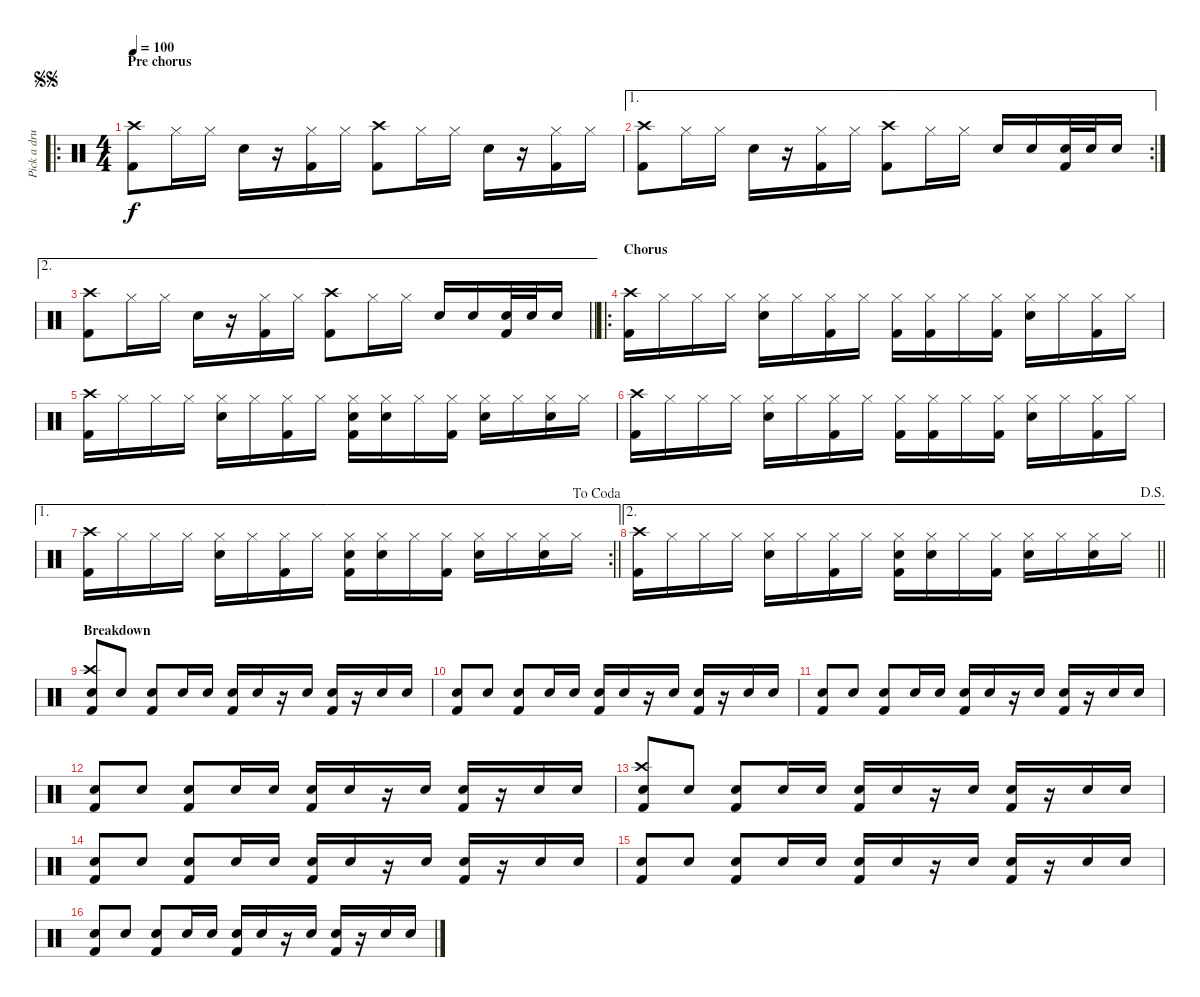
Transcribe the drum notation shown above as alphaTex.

\track ("Pick a drummer any drummer" "Pick a dru") {instrument percussion}
\staff {score}
\articulation defaults
\ro
\ts (4 4)
\section ("" "Pre chorus")
\jump segnosegno
\tempo 100
\clef neutral
\ks c
("Kick (hit) 2" "Crash high (hit)").8{dy f} "Hi-Hat (closed)".16 "Hi-Hat (closed)".16 "Snare (hit) 2".16 r.16 ("Hi-Hat (closed)" "Kick (hit) 2").16 "Hi-Hat (closed)".16 ("Kick (hit) 2" "Crash high (hit)").8 "Hi-Hat (closed)".16 "Hi-Hat (closed)".16 "Snare (hit) 2".16 r.16 ("Hi-Hat (closed)" "Kick (hit) 2").16 "Hi-Hat (closed)".16 |
\ae 1
\rc 2
("Kick (hit) 2" "Crash high (hit)").8 "Hi-Hat (closed)".16 "Hi-Hat (closed)".16 "Snare (hit) 2".16 r.16 ("Hi-Hat (closed)" "Kick (hit) 2").16 "Hi-Hat (closed)".16 ("Kick (hit) 2" "Crash high (hit)").8 "Hi-Hat (closed)".16 "Hi-Hat (closed)".16 "Snare (hit) 2".16 "Snare (hit) 2".16 ("Snare (hit) 2" "Kick (hit) 2").32 "Snare (hit) 2".32 "Snare (hit) 2".16 |
\ae 2
\barLineRight lightlight
("Kick (hit) 2" "Crash high (hit)").8 "Hi-Hat (closed)".16 "Hi-Hat (closed)".16 "Snare (hit) 2".16 r.16 ("Hi-Hat (closed)" "Kick (hit) 2").16 "Hi-Hat (closed)".16 ("Kick (hit) 2" "Crash high (hit)").8 "Hi-Hat (closed)".16 "Hi-Hat (closed)".16 "Snare (hit) 2".16 "Snare (hit) 2".16 ("Snare (hit) 2" "Kick (hit) 2").32 "Snare (hit) 2".32 "Snare (hit) 2".16 |
\ro
\section ("" "Chorus")
("Kick (hit) 2" "Crash high (hit)").16 "Hi-Hat (closed)".16 "Hi-Hat (closed)".16 "Hi-Hat (closed)".16 ("Hi-Hat (closed)" "Snare (hit) 2").16 "Hi-Hat (closed)".16 ("Hi-Hat (closed)" "Kick (hit) 2").16 "Hi-Hat (closed)".16 ("Hi-Hat (closed)" "Kick (hit) 2").16 ("Hi-Hat (closed)" "Kick (hit) 2").16 "Hi-Hat (closed)".16 ("Hi-Hat (closed)" "Kick (hit) 2").16 ("Hi-Hat (closed)" "Snare (hit) 2").16 "Hi-Hat (closed)".16 ("Hi-Hat (closed)" "Kick (hit) 2").16 "Hi-Hat (closed)".16 |
("Kick (hit) 2" "Crash high (hit)").16 "Hi-Hat (closed)".16 "Hi-Hat (closed)".16 "Hi-Hat (closed)".16 ("Hi-Hat (closed)" "Snare (hit) 2").16 "Hi-Hat (closed)".16 ("Hi-Hat (closed)" "Kick (hit) 2").16 "Hi-Hat (closed)".16 ("Hi-Hat (closed)" "Snare (hit) 2" "Kick (hit) 2").16 ("Hi-Hat (closed)" "Snare (hit) 2").16 "Hi-Hat (closed)".16 ("Hi-Hat (closed)" "Kick (hit) 2").16 ("Hi-Hat (closed)" "Snare (hit) 2").16 "Hi-Hat (closed)".16 ("Hi-Hat (closed)" "Snare (hit) 2").16 "Hi-Hat (closed)".16 |
("Kick (hit) 2" "Crash high (hit)").16 "Hi-Hat (closed)".16 "Hi-Hat (closed)".16 "Hi-Hat (closed)".16 ("Hi-Hat (closed)" "Snare (hit) 2").16 "Hi-Hat (closed)".16 ("Hi-Hat (closed)" "Kick (hit) 2").16 "Hi-Hat (closed)".16 ("Hi-Hat (closed)" "Kick (hit) 2").16 ("Hi-Hat (closed)" "Kick (hit) 2").16 "Hi-Hat (closed)".16 ("Hi-Hat (closed)" "Kick (hit) 2").16 ("Hi-Hat (closed)" "Snare (hit) 2").16 "Hi-Hat (closed)".16 ("Hi-Hat (closed)" "Kick (hit) 2").16 "Hi-Hat (closed)".16 |
\ae 1
\rc 2
\jump dacoda
\barLineRight lightlight
("Kick (hit) 2" "Crash high (hit)").16 "Hi-Hat (closed)".16 "Hi-Hat (closed)".16 "Hi-Hat (closed)".16 ("Hi-Hat (closed)" "Snare (hit) 2").16 "Hi-Hat (closed)".16 ("Hi-Hat (closed)" "Kick (hit) 2").16 "Hi-Hat (closed)".16 ("Hi-Hat (closed)" "Snare (hit) 2" "Kick (hit) 2").16 ("Hi-Hat (closed)" "Snare (hit) 2").16 "Hi-Hat (closed)".16 ("Hi-Hat (closed)" "Kick (hit) 2").16 ("Hi-Hat (closed)" "Snare (hit) 2").16 "Hi-Hat (closed)".16 ("Hi-Hat (closed)" "Snare (hit) 2").16 "Hi-Hat (closed)".16 |
\ae 2
\jump dalsegno
\barLineRight lightlight
("Kick (hit) 2" "Crash high (hit)").16 "Hi-Hat (closed)".16 "Hi-Hat (closed)".16 "Hi-Hat (closed)".16 ("Hi-Hat (closed)" "Snare (hit) 2").16 "Hi-Hat (closed)".16 ("Hi-Hat (closed)" "Kick (hit) 2").16 "Hi-Hat (closed)".16 ("Hi-Hat (closed)" "Snare (hit) 2" "Kick (hit) 2").16 ("Hi-Hat (closed)" "Snare (hit) 2").16 "Hi-Hat (closed)".16 ("Hi-Hat (closed)" "Kick (hit) 2").16 ("Hi-Hat (closed)" "Snare (hit) 2").16 "Hi-Hat (closed)".16 ("Hi-Hat (closed)" "Snare (hit) 2").16 "Hi-Hat (closed)".16 |
\section ("" "Breakdown")
("Snare (hit) 2" "Kick (hit) 2" "Crash high (hit)").8 "Snare (hit) 2".8 ("Snare (hit) 2" "Kick (hit) 2").8 "Snare (hit) 2".16 "Snare (hit) 2".16 ("Snare (hit) 2" "Kick (hit) 2").16 "Snare (hit) 2".16 r.16 "Snare (hit) 2".16 ("Snare (hit) 2" "Kick (hit) 2").16 r.16 "Snare (hit) 2".16 "Snare (hit) 2".16 |
("Snare (hit) 2" "Kick (hit) 2").8 "Snare (hit) 2".8 ("Snare (hit) 2" "Kick (hit) 2").8 "Snare (hit) 2".16 "Snare (hit) 2".16 ("Snare (hit) 2" "Kick (hit) 2").16 "Snare (hit) 2".16 r.16 "Snare (hit) 2".16 ("Snare (hit) 2" "Kick (hit) 2").16 r.16 "Snare (hit) 2".16 "Snare (hit) 2".16 |
("Snare (hit) 2" "Kick (hit) 2").8 "Snare (hit) 2".8 ("Snare (hit) 2" "Kick (hit) 2").8 "Snare (hit) 2".16 "Snare (hit) 2".16 ("Snare (hit) 2" "Kick (hit) 2").16 "Snare (hit) 2".16 r.16 "Snare (hit) 2".16 ("Snare (hit) 2" "Kick (hit) 2").16 r.16 "Snare (hit) 2".16 "Snare (hit) 2".16 |
("Snare (hit) 2" "Kick (hit) 2").8 "Snare (hit) 2".8 ("Snare (hit) 2" "Kick (hit) 2").8 "Snare (hit) 2".16 "Snare (hit) 2".16 ("Snare (hit) 2" "Kick (hit) 2").16 "Snare (hit) 2".16 r.16 "Snare (hit) 2".16 ("Snare (hit) 2" "Kick (hit) 2").16 r.16 "Snare (hit) 2".16 "Snare (hit) 2".16 |
("Snare (hit) 2" "Kick (hit) 2" "Crash high (hit)").8 "Snare (hit) 2".8 ("Snare (hit) 2" "Kick (hit) 2").8 "Snare (hit) 2".16 "Snare (hit) 2".16 ("Snare (hit) 2" "Kick (hit) 2").16 "Snare (hit) 2".16 r.16 "Snare (hit) 2".16 ("Snare (hit) 2" "Kick (hit) 2").16 r.16 "Snare (hit) 2".16 "Snare (hit) 2".16 |
("Snare (hit) 2" "Kick (hit) 2").8 "Snare (hit) 2".8 ("Snare (hit) 2" "Kick (hit) 2").8 "Snare (hit) 2".16 "Snare (hit) 2".16 ("Snare (hit) 2" "Kick (hit) 2").16 "Snare (hit) 2".16 r.16 "Snare (hit) 2".16 ("Snare (hit) 2" "Kick (hit) 2").16 r.16 "Snare (hit) 2".16 "Snare (hit) 2".16 |
("Snare (hit) 2" "Kick (hit) 2").8 "Snare (hit) 2".8 ("Snare (hit) 2" "Kick (hit) 2").8 "Snare (hit) 2".16 "Snare (hit) 2".16 ("Snare (hit) 2" "Kick (hit) 2").16 "Snare (hit) 2".16 r.16 "Snare (hit) 2".16 ("Snare (hit) 2" "Kick (hit) 2").16 r.16 "Snare (hit) 2".16 "Snare (hit) 2".16 |
("Snare (hit) 2" "Kick (hit) 2").8 "Snare (hit) 2".8 ("Snare (hit) 2" "Kick (hit) 2").8 "Snare (hit) 2".16 "Snare (hit) 2".16 ("Snare (hit) 2" "Kick (hit) 2").16 "Snare (hit) 2".16 r.16 "Snare (hit) 2".16 ("Snare (hit) 2" "Kick (hit) 2").16 r.16 "Snare (hit) 2".16 "Snare (hit) 2".16
